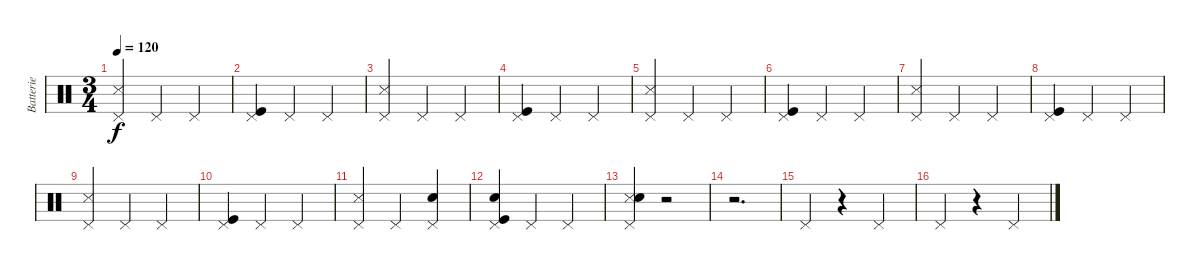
\track ("Batterie" "Batterie") {instrument percussion}
\staff {score}
\articulation defaults
\ts (3 4)
\tempo 120
\clef neutral
\ks c
("Pedal Hi-Hat (hit)" "Snare (side stick) 3").4{dy f} "Pedal Hi-Hat (hit)".4 "Pedal Hi-Hat (hit)".4 |
("Pedal Hi-Hat (hit)" "Kick (hit)").4 "Pedal Hi-Hat (hit)".4 "Pedal Hi-Hat (hit)".4 |
("Pedal Hi-Hat (hit)" "Snare (side stick) 3").4 "Pedal Hi-Hat (hit)".4 "Pedal Hi-Hat (hit)".4 |
("Pedal Hi-Hat (hit)" "Kick (hit)").4 "Pedal Hi-Hat (hit)".4 "Pedal Hi-Hat (hit)".4 |
("Pedal Hi-Hat (hit)" "Snare (side stick) 3").4 "Pedal Hi-Hat (hit)".4 "Pedal Hi-Hat (hit)".4 |
("Pedal Hi-Hat (hit)" "Kick (hit)").4 "Pedal Hi-Hat (hit)".4 "Pedal Hi-Hat (hit)".4 |
("Pedal Hi-Hat (hit)" "Snare (side stick) 3").4 "Pedal Hi-Hat (hit)".4 "Pedal Hi-Hat (hit)".4 |
("Pedal Hi-Hat (hit)" "Kick (hit)").4 "Pedal Hi-Hat (hit)".4 "Pedal Hi-Hat (hit)".4 |
("Pedal Hi-Hat (hit)" "Snare (side stick) 3").4 "Pedal Hi-Hat (hit)".4 "Pedal Hi-Hat (hit)".4 |
("Pedal Hi-Hat (hit)" "Kick (hit)").4 "Pedal Hi-Hat (hit)".4 "Pedal Hi-Hat (hit)".4 |
("Pedal Hi-Hat (hit)" "Snare (side stick) 3").4 "Pedal Hi-Hat (hit)".4 ("Pedal Hi-Hat (hit)" "Electric Snare (hit)").4 |
("Pedal Hi-Hat (hit)" "Kick (hit)" "Electric Snare (hit)").4 "Pedal Hi-Hat (hit)".4 "Pedal Hi-Hat (hit)".4 |
("Pedal Hi-Hat (hit)" "Snare (side stick) 3" "Electric Snare (hit)").4 r.2 |
r.2{d} |
"Pedal Hi-Hat (hit)".4 r.4 "Pedal Hi-Hat (hit)".4 |
"Pedal Hi-Hat (hit)".4 r.4 "Pedal Hi-Hat (hit)".4
